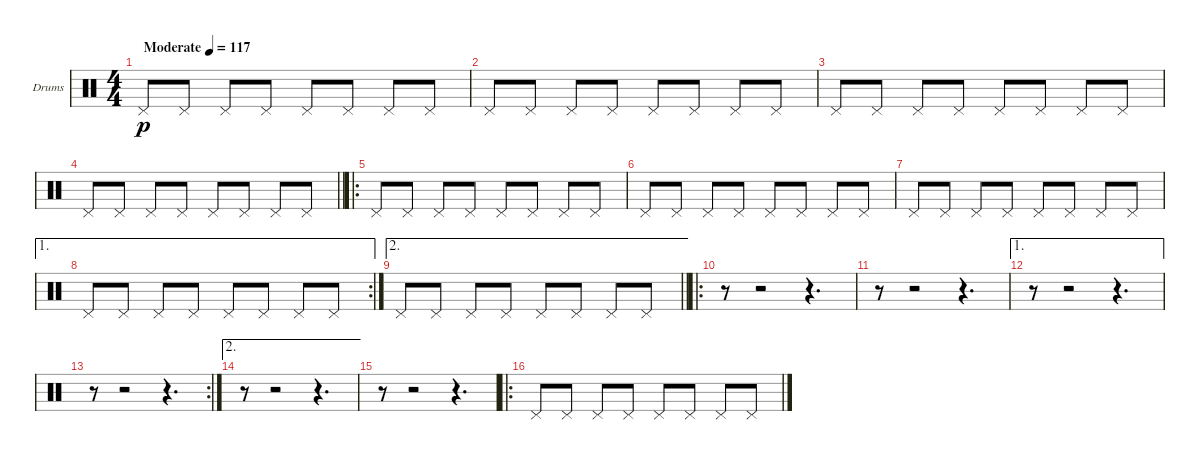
\bracketExtendMode groupsimilarinstruments
\firstSystemTrackNameOrientation horizontal
\otherSystemsTrackNameOrientation horizontal
\track ("Dominic Hit hat pedal" "Drums") {instrument percussion}
\staff {score}
\articulation defaults
\ts (4 4)
\beaming (8 2 2 2 2)
\tempo (117 "Moderate")
\clef neutral
\ks c "Pedal Hi-Hat (hit)".8{dy p} "Pedal Hi-Hat (hit)".8 "Pedal Hi-Hat (hit)".8 "Pedal Hi-Hat (hit)".8 "Pedal Hi-Hat (hit)".8 "Pedal Hi-Hat (hit)".8 "Pedal Hi-Hat (hit)".8 "Pedal Hi-Hat (hit)".8
|
"Pedal Hi-Hat (hit)".8 "Pedal Hi-Hat (hit)".8 "Pedal Hi-Hat (hit)".8 "Pedal Hi-Hat (hit)".8 "Pedal Hi-Hat (hit)".8 "Pedal Hi-Hat (hit)".8 "Pedal Hi-Hat (hit)".8 "Pedal Hi-Hat (hit)".8 |
"Pedal Hi-Hat (hit)".8 "Pedal Hi-Hat (hit)".8 "Pedal Hi-Hat (hit)".8 "Pedal Hi-Hat (hit)".8 "Pedal Hi-Hat (hit)".8 "Pedal Hi-Hat (hit)".8 "Pedal Hi-Hat (hit)".8 "Pedal Hi-Hat (hit)".8 |
\barLineRight lightlight "Pedal Hi-Hat (hit)".8 "Pedal Hi-Hat (hit)".8 "Pedal Hi-Hat (hit)".8 "Pedal Hi-Hat (hit)".8 "Pedal Hi-Hat (hit)".8 "Pedal Hi-Hat (hit)".8 "Pedal Hi-Hat (hit)".8 "Pedal Hi-Hat (hit)".8
|
\ro "Pedal Hi-Hat (hit)".8 "Pedal Hi-Hat (hit)".8 "Pedal Hi-Hat (hit)".8 "Pedal Hi-Hat (hit)".8 "Pedal Hi-Hat (hit)".8 "Pedal Hi-Hat (hit)".8 "Pedal Hi-Hat (hit)".8 "Pedal Hi-Hat (hit)".8
|
"Pedal Hi-Hat (hit)".8 "Pedal Hi-Hat (hit)".8 "Pedal Hi-Hat (hit)".8 "Pedal Hi-Hat (hit)".8 "Pedal Hi-Hat (hit)".8 "Pedal Hi-Hat (hit)".8 "Pedal Hi-Hat (hit)".8 "Pedal Hi-Hat (hit)".8 |
"Pedal Hi-Hat (hit)".8 "Pedal Hi-Hat (hit)".8 "Pedal Hi-Hat (hit)".8 "Pedal Hi-Hat (hit)".8 "Pedal Hi-Hat (hit)".8 "Pedal Hi-Hat (hit)".8 "Pedal Hi-Hat (hit)".8 "Pedal Hi-Hat (hit)".8 |
\ae 1
\rc 2 "Pedal Hi-Hat (hit)".8 "Pedal Hi-Hat (hit)".8 "Pedal Hi-Hat (hit)".8 "Pedal Hi-Hat (hit)".8 "Pedal Hi-Hat (hit)".8 "Pedal Hi-Hat (hit)".8 "Pedal Hi-Hat (hit)".8 "Pedal Hi-Hat (hit)".8
|
\ae 2
\barLineRight lightlight "Pedal Hi-Hat (hit)".8 "Pedal Hi-Hat (hit)".8 "Pedal Hi-Hat (hit)".8 "Pedal Hi-Hat (hit)".8 "Pedal Hi-Hat (hit)".8 "Pedal Hi-Hat (hit)".8 "Pedal Hi-Hat (hit)".8 "Pedal Hi-Hat (hit)".8
|
\ro
r.8 r.2 r.4{d} |
r.8 r.2 r.4{d} |
\ae 1
r.8 r.2 r.4{d} |
\rc 2
r.8 r.2 r.4{d} |
\ae 2
r.8 r.2 r.4{d} |
r.8 r.2 r.4{d} |
\ro "Pedal Hi-Hat (hit)".8 "Pedal Hi-Hat (hit)".8 "Pedal Hi-Hat (hit)".8 "Pedal Hi-Hat (hit)".8 "Pedal Hi-Hat (hit)".8 "Pedal Hi-Hat (hit)".8 "Pedal Hi-Hat (hit)".8 "Pedal Hi-Hat (hit)".8
